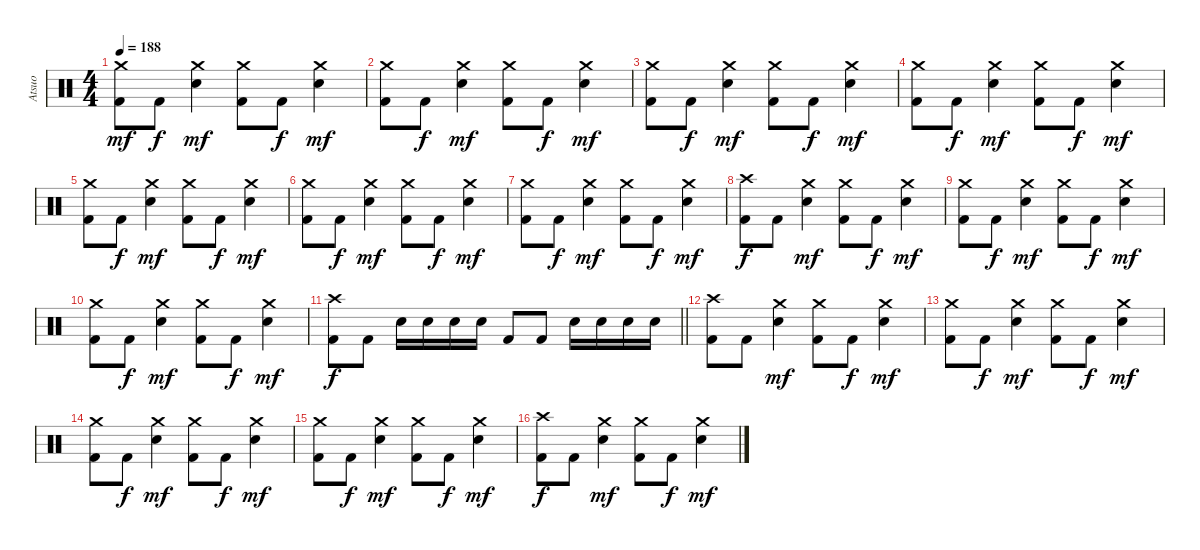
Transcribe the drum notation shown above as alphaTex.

\track ("Atsuo" "Atsuo") {instrument percussion}
\staff {score}
\articulation defaults
\ts (4 4)
\tempo 188
\clef neutral
\ks c
("Crash medium (hit)" "Kick (hit) 2").8{dy mf} "Kick (hit) 2".8{dy f} ("Crash medium (hit)" "Electric Snare (hit)").4{dy mf} ("Crash medium (hit)" "Kick (hit) 2").8 "Kick (hit) 2".8{dy f} ("Crash medium (hit)" "Electric Snare (hit)").4{dy mf} |
("Crash medium (hit)" "Kick (hit) 2").8 "Kick (hit) 2".8{dy f} ("Crash medium (hit)" "Electric Snare (hit)").4{dy mf} ("Crash medium (hit)" "Kick (hit) 2").8 "Kick (hit) 2".8{dy f} ("Crash medium (hit)" "Electric Snare (hit)").4{dy mf} |
("Crash medium (hit)" "Kick (hit) 2").8 "Kick (hit) 2".8{dy f} ("Crash medium (hit)" "Electric Snare (hit)").4{dy mf} ("Crash medium (hit)" "Kick (hit) 2").8 "Kick (hit) 2".8{dy f} ("Crash medium (hit)" "Electric Snare (hit)").4{dy mf} |
("Crash medium (hit)" "Kick (hit) 2").8 "Kick (hit) 2".8{dy f} ("Crash medium (hit)" "Electric Snare (hit)").4{dy mf} ("Crash medium (hit)" "Kick (hit) 2").8 "Kick (hit) 2".8{dy f} ("Crash medium (hit)" "Electric Snare (hit)").4{dy mf} |
("Crash medium (hit)" "Kick (hit) 2").8 "Kick (hit) 2".8{dy f} ("Crash medium (hit)" "Electric Snare (hit)").4{dy mf} ("Crash medium (hit)" "Kick (hit) 2").8 "Kick (hit) 2".8{dy f} ("Crash medium (hit)" "Electric Snare (hit)").4{dy mf} |
("Crash medium (hit)" "Kick (hit) 2").8 "Kick (hit) 2".8{dy f} ("Crash medium (hit)" "Electric Snare (hit)").4{dy mf} ("Crash medium (hit)" "Kick (hit) 2").8 "Kick (hit) 2".8{dy f} ("Crash medium (hit)" "Electric Snare (hit)").4{dy mf} |
("Crash medium (hit)" "Kick (hit) 2").8 "Kick (hit) 2".8{dy f} ("Crash medium (hit)" "Electric Snare (hit)").4{dy mf} ("Crash medium (hit)" "Kick (hit) 2").8 "Kick (hit) 2".8{dy f} ("Crash medium (hit)" "Electric Snare (hit)").4{dy mf} |
("Crash high (hit)" "Kick (hit) 2").8{dy f} "Kick (hit) 2".8 ("Crash medium (hit)" "Electric Snare (hit)").4{dy mf} ("Crash medium (hit)" "Kick (hit) 2").8 "Kick (hit) 2".8{dy f} ("Crash medium (hit)" "Electric Snare (hit)").4{dy mf} |
("Crash medium (hit)" "Kick (hit) 2").8 "Kick (hit) 2".8{dy f} ("Crash medium (hit)" "Electric Snare (hit)").4{dy mf} ("Crash medium (hit)" "Kick (hit) 2").8 "Kick (hit) 2".8{dy f} ("Crash medium (hit)" "Electric Snare (hit)").4{dy mf} |
("Crash medium (hit)" "Kick (hit) 2").8 "Kick (hit) 2".8{dy f} ("Crash medium (hit)" "Electric Snare (hit)").4{dy mf} ("Crash medium (hit)" "Kick (hit) 2").8 "Kick (hit) 2".8{dy f} ("Crash medium (hit)" "Electric Snare (hit)").4{dy mf} |
\barLineRight lightlight
("Crash high (hit)" "Kick (hit) 2").8{dy f} "Kick (hit) 2".8 "Electric Snare (hit)".16 "Electric Snare (hit)".16 "Electric Snare (hit)".16 "Electric Snare (hit)".16 "Kick (hit) 2".8 "Kick (hit) 2".8 "Electric Snare (hit)".16 "Electric Snare (hit)".16 "Electric Snare (hit)".16 "Electric Snare (hit)".16 |
\section ("" "")
("Crash high (hit)" "Kick (hit) 2").8 "Kick (hit) 2".8 ("Crash medium (hit)" "Electric Snare (hit)").4{dy mf} ("Crash medium (hit)" "Kick (hit) 2").8 "Kick (hit) 2".8{dy f} ("Crash medium (hit)" "Electric Snare (hit)").4{dy mf} |
("Crash medium (hit)" "Kick (hit) 2").8 "Kick (hit) 2".8{dy f} ("Crash medium (hit)" "Electric Snare (hit)").4{dy mf} ("Crash medium (hit)" "Kick (hit) 2").8 "Kick (hit) 2".8{dy f} ("Crash medium (hit)" "Electric Snare (hit)").4{dy mf} |
("Crash medium (hit)" "Kick (hit) 2").8 "Kick (hit) 2".8{dy f} ("Crash medium (hit)" "Electric Snare (hit)").4{dy mf} ("Crash medium (hit)" "Kick (hit) 2").8 "Kick (hit) 2".8{dy f} ("Crash medium (hit)" "Electric Snare (hit)").4{dy mf} |
("Crash medium (hit)" "Kick (hit) 2").8 "Kick (hit) 2".8{dy f} ("Crash medium (hit)" "Electric Snare (hit)").4{dy mf} ("Crash medium (hit)" "Kick (hit) 2").8 "Kick (hit) 2".8{dy f} ("Crash medium (hit)" "Electric Snare (hit)").4{dy mf} |
("Crash high (hit)" "Kick (hit) 2").8{dy f} "Kick (hit) 2".8 ("Crash medium (hit)" "Electric Snare (hit)").4{dy mf} ("Crash medium (hit)" "Kick (hit) 2").8 "Kick (hit) 2".8{dy f} ("Crash medium (hit)" "Electric Snare (hit)").4{dy mf}
